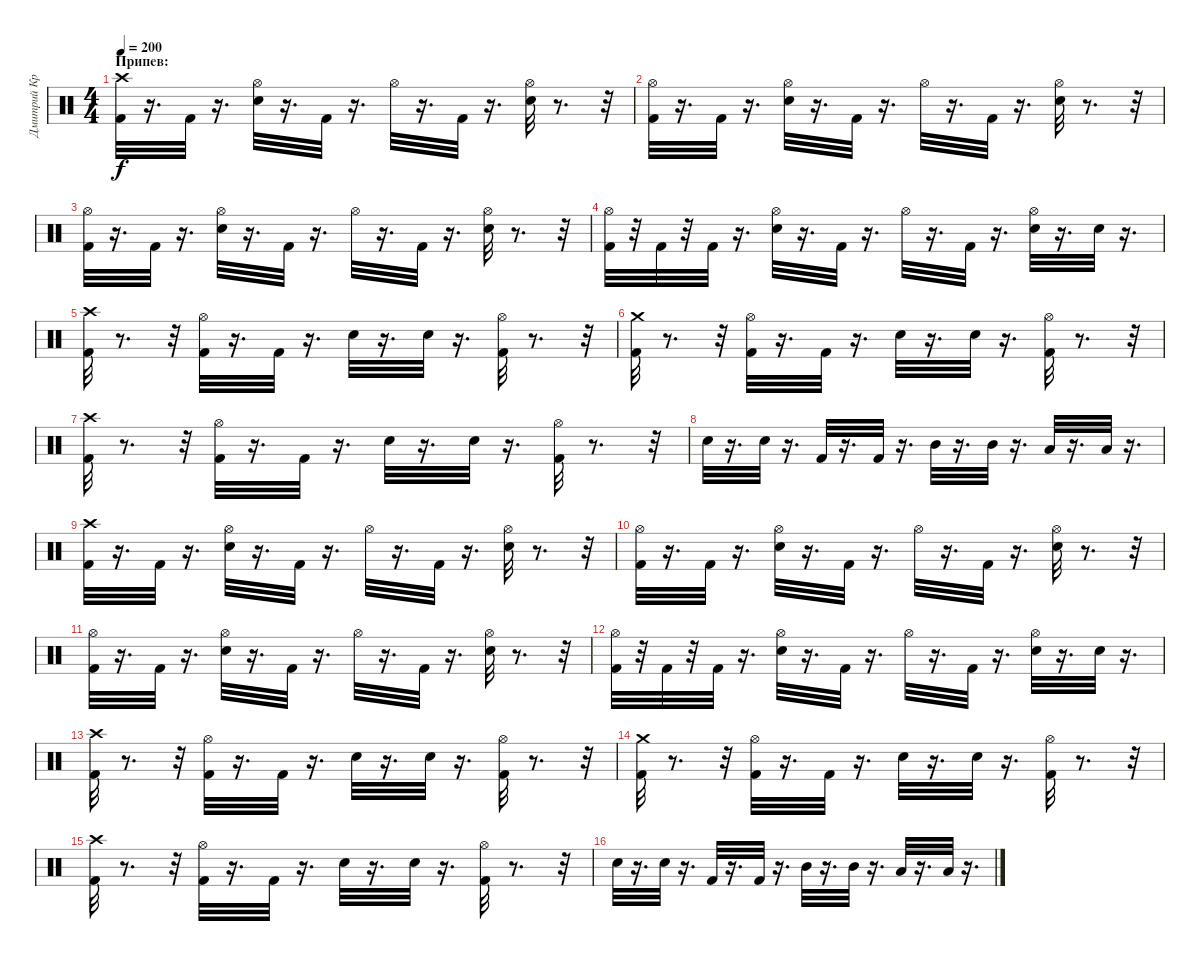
\track ("Дмитрий Кривенков" "Дмитрий Кр") {instrument percussion}
\staff {score}
\articulation defaults
\ts (4 4)
\section ("" "Припев:")
\tempo 200
\clef neutral
\ks c
("Crash high (hit)" "Kick (hit) 2").32{dy f} r.16{d} "Kick (hit) 2".32 r.16{d} ("Hi-Hat (open)" "Electric Snare (hit)").32 r.16{d} "Kick (hit) 2".32 r.16{d} "Hi-Hat (open)".32 r.16{d} "Kick (hit) 2".32 r.16{d} ("Hi-Hat (open)" "Electric Snare (hit)").32 r.8{d} r.32 |
("Hi-Hat (open)" "Kick (hit) 2").32 r.16{d} "Kick (hit) 2".32 r.16{d} ("Hi-Hat (open)" "Electric Snare (hit)").32 r.16{d} "Kick (hit) 2".32 r.16{d} "Hi-Hat (open)".32 r.16{d} "Kick (hit) 2".32 r.16{d} ("Hi-Hat (open)" "Electric Snare (hit)").32 r.8{d} r.32 |
("Hi-Hat (open)" "Kick (hit) 2").32 r.16{d} "Kick (hit) 2".32 r.16{d} ("Hi-Hat (open)" "Electric Snare (hit)").32 r.16{d} "Kick (hit) 2".32 r.16{d} "Hi-Hat (open)".32 r.16{d} "Kick (hit) 2".32 r.16{d} ("Hi-Hat (open)" "Electric Snare (hit)").32 r.8{d} r.32 |
("Hi-Hat (open)" "Kick (hit) 2").32 r.32 "Kick (hit) 2".32 r.32 "Kick (hit) 2".32 r.16{d} ("Hi-Hat (open)" "Electric Snare (hit)").32 r.16{d} "Kick (hit) 2".32 r.16{d} "Hi-Hat (open)".32 r.16{d} "Kick (hit) 2".32 r.16{d} ("Hi-Hat (open)" "Electric Snare (hit)").32 r.16{d} "Electric Snare (hit)".32 r.16{d} |
("Crash high (hit)" "Kick (hit) 2").32 r.8{d} r.32 ("Hi-Hat (open)" "Kick (hit) 2").32 r.16{d} "Kick (hit) 2".32 r.16{d} "Electric Snare (hit)".32 r.16{d} "Electric Snare (hit)".32 r.16{d} ("Kick (hit) 2" "Hi-Hat (open)").32 r.8{d} r.32 |
("Crash medium (hit)" "Kick (hit) 2").32 r.8{d} r.32 ("Hi-Hat (open)" "Kick (hit) 2").32 r.16{d} "Kick (hit) 2".32 r.16{d} "Electric Snare (hit)".32 r.16{d} "Electric Snare (hit)".32 r.16{d} ("Hi-Hat (open)" "Kick (hit) 2").32 r.8{d} r.32 |
("Crash high (hit)" "Kick (hit) 2").32 r.8{d} r.32 ("Hi-Hat (open)" "Kick (hit) 2").32 r.16{d} "Kick (hit) 2".32 r.16{d} "Electric Snare (hit)".32 r.16{d} "Electric Snare (hit)".32 r.16{d} ("Hi-Hat (open)" "Kick (hit) 2").32 r.8{d} r.32 |
"Electric Snare (hit)".32 r.16{d} "Electric Snare (hit)".32 r.16{d} "Kick (hit) 2".32 r.16{d} "Kick (hit) 2".32 r.16{d} "Mid Tom (hit)".32 r.16{d} "Mid Tom (hit)".32 r.16{d} "Low Tom (hit)".32 r.16{d} "Low Tom (hit)".32 r.16{d} |
("Crash high (hit)" "Kick (hit) 2").32 r.16{d} "Kick (hit) 2".32 r.16{d} ("Hi-Hat (open)" "Electric Snare (hit)").32 r.16{d} "Kick (hit) 2".32 r.16{d} "Hi-Hat (open)".32 r.16{d} "Kick (hit) 2".32 r.16{d} ("Hi-Hat (open)" "Electric Snare (hit)").32 r.8{d} r.32 |
("Hi-Hat (open)" "Kick (hit) 2").32 r.16{d} "Kick (hit) 2".32 r.16{d} ("Hi-Hat (open)" "Electric Snare (hit)").32 r.16{d} "Kick (hit) 2".32 r.16{d} "Hi-Hat (open)".32 r.16{d} "Kick (hit) 2".32 r.16{d} ("Hi-Hat (open)" "Electric Snare (hit)").32 r.8{d} r.32 |
("Hi-Hat (open)" "Kick (hit) 2").32 r.16{d} "Kick (hit) 2".32 r.16{d} ("Hi-Hat (open)" "Electric Snare (hit)").32 r.16{d} "Kick (hit) 2".32 r.16{d} "Hi-Hat (open)".32 r.16{d} "Kick (hit) 2".32 r.16{d} ("Hi-Hat (open)" "Electric Snare (hit)").32 r.8{d} r.32 |
("Hi-Hat (open)" "Kick (hit) 2").32 r.32 "Kick (hit) 2".32 r.32 "Kick (hit) 2".32 r.16{d} ("Hi-Hat (open)" "Electric Snare (hit)").32 r.16{d} "Kick (hit) 2".32 r.16{d} "Hi-Hat (open)".32 r.16{d} "Kick (hit) 2".32 r.16{d} ("Hi-Hat (open)" "Electric Snare (hit)").32 r.16{d} "Electric Snare (hit)".32 r.16{d} |
("Crash high (hit)" "Kick (hit) 2").32 r.8{d} r.32 ("Hi-Hat (open)" "Kick (hit) 2").32 r.16{d} "Kick (hit) 2".32 r.16{d} "Electric Snare (hit)".32 r.16{d} "Electric Snare (hit)".32 r.16{d} ("Kick (hit) 2" "Hi-Hat (open)").32 r.8{d} r.32 |
("Crash medium (hit)" "Kick (hit) 2").32 r.8{d} r.32 ("Hi-Hat (open)" "Kick (hit) 2").32 r.16{d} "Kick (hit) 2".32 r.16{d} "Electric Snare (hit)".32 r.16{d} "Electric Snare (hit)".32 r.16{d} ("Hi-Hat (open)" "Kick (hit) 2").32 r.8{d} r.32 |
("Crash high (hit)" "Kick (hit) 2").32 r.8{d} r.32 ("Hi-Hat (open)" "Kick (hit) 2").32 r.16{d} "Kick (hit) 2".32 r.16{d} "Electric Snare (hit)".32 r.16{d} "Electric Snare (hit)".32 r.16{d} ("Hi-Hat (open)" "Kick (hit) 2").32 r.8{d} r.32 |
"Electric Snare (hit)".32 r.16{d} "Electric Snare (hit)".32 r.16{d} "Kick (hit) 2".32 r.16{d} "Kick (hit) 2".32 r.16{d} "Mid Tom (hit)".32 r.16{d} "Mid Tom (hit)".32 r.16{d} "Low Tom (hit)".32 r.16{d} "Low Tom (hit)".32 r.16{d}
